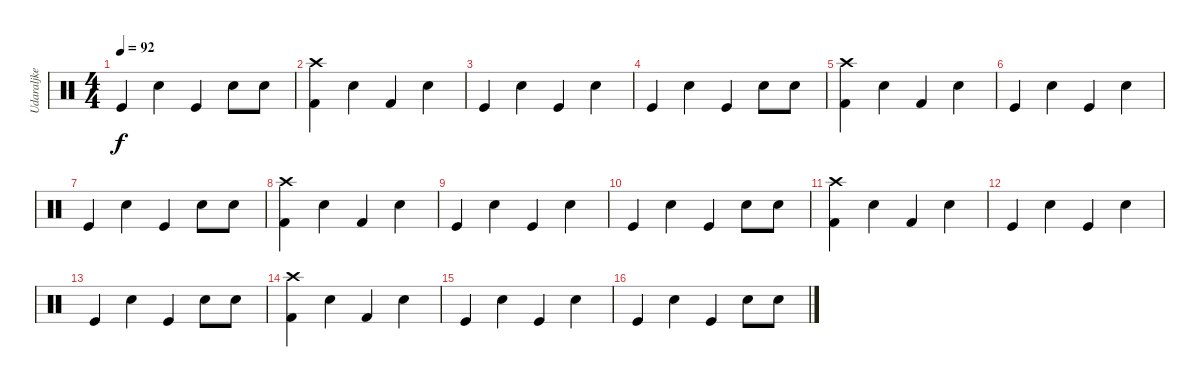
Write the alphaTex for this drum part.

\track ("Udaraljke" "Udaraljke") {instrument percussion}
\staff {score}
\articulation defaults
\ts (4 4)
\tempo 92
\clef neutral
\ks c "Kick (hit)".4{dy f} "Electric Snare (hit)".4 "Kick (hit)".4 "Electric Snare (hit)".8 "Snare (hit) 2".8
|
("Crash high (hit)" "Kick (hit) 2").4 "Electric Snare (hit)".4 "Kick (hit) 2".4 "Electric Snare (hit)".4 |
"Kick (hit)".4 "Electric Snare (hit)".4 "Kick (hit)".4 "Electric Snare (hit)".4 |
"Kick (hit)".4 "Electric Snare (hit)".4 "Kick (hit)".4 "Electric Snare (hit)".8 "Snare (hit) 2".8 |
("Crash high (hit)" "Kick (hit) 2").4 "Electric Snare (hit)".4 "Kick (hit) 2".4 "Electric Snare (hit)".4 |
"Kick (hit)".4 "Electric Snare (hit)".4 "Kick (hit)".4 "Electric Snare (hit)".4 |
"Kick (hit)".4 "Electric Snare (hit)".4 "Kick (hit)".4 "Electric Snare (hit)".8 "Snare (hit) 2".8 |
("Crash high (hit)" "Kick (hit) 2").4 "Electric Snare (hit)".4 "Kick (hit) 2".4 "Electric Snare (hit)".4 |
"Kick (hit)".4 "Electric Snare (hit)".4 "Kick (hit)".4 "Electric Snare (hit)".4 |
"Kick (hit)".4 "Electric Snare (hit)".4 "Kick (hit)".4 "Electric Snare (hit)".8 "Snare (hit) 2".8 |
("Crash high (hit)" "Kick (hit) 2").4 "Electric Snare (hit)".4 "Kick (hit) 2".4 "Electric Snare (hit)".4 |
"Kick (hit)".4 "Electric Snare (hit)".4 "Kick (hit)".4 "Electric Snare (hit)".4 |
"Kick (hit)".4 "Electric Snare (hit)".4 "Kick (hit)".4 "Electric Snare (hit)".8 "Snare (hit) 2".8 |
("Crash high (hit)" "Kick (hit) 2").4 "Electric Snare (hit)".4 "Kick (hit) 2".4 "Electric Snare (hit)".4 |
"Kick (hit)".4 "Electric Snare (hit)".4 "Kick (hit)".4 "Electric Snare (hit)".4 |
"Kick (hit)".4 "Electric Snare (hit)".4 "Kick (hit)".4 "Electric Snare (hit)".8 "Snare (hit) 2".8
